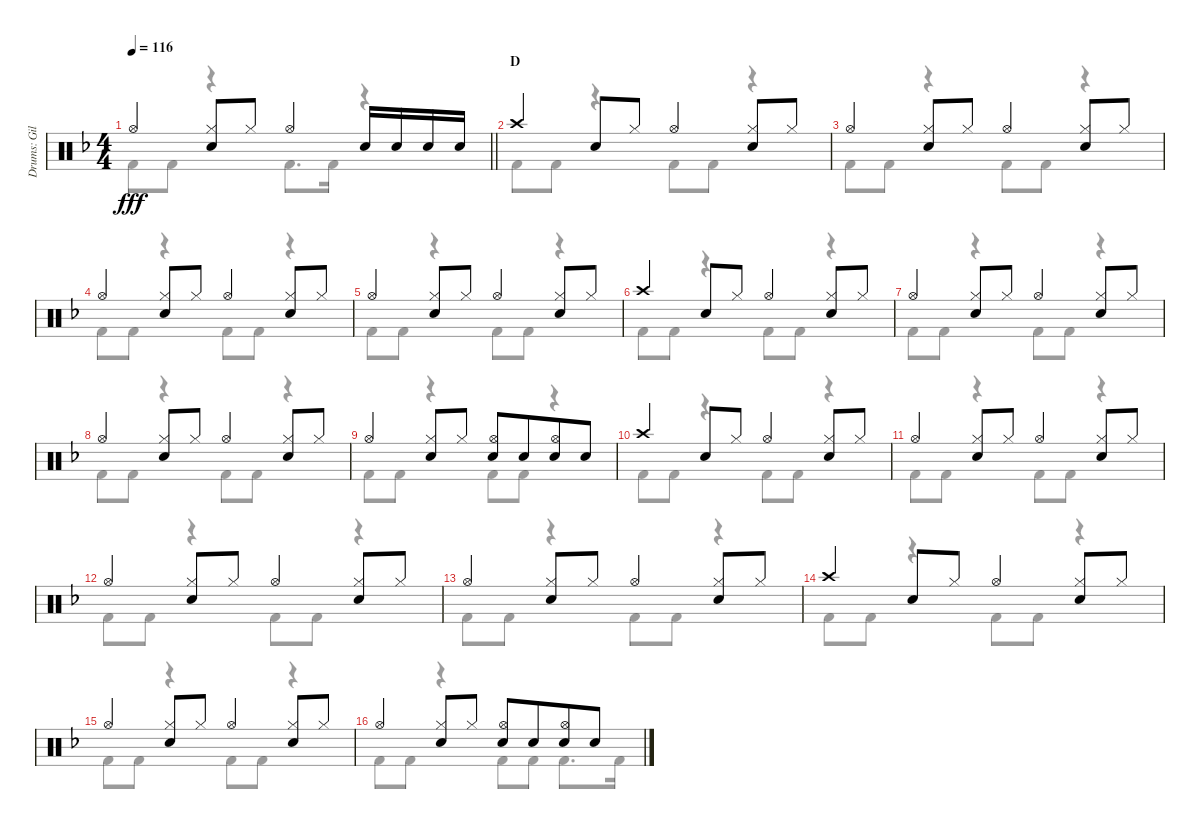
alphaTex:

\track ("Drums: Gil" "Drums: Gil") {instrument percussion}
\staff {score}
\articulation defaults
\voice
\ts (4 4)
\tempo 116
\clef neutral
\barLineRight lightlight
\ks f "Hi-Hat (open)".4{dy fff beam merge}
("Hi-Hat (closed)" "Snare (hit) 2").8 "Hi-Hat (closed)".8 "Hi-Hat (open)".4{beam merge} "Snare (hit) 2".16 "Snare (hit) 2".16{beam merge} "Snare (hit) 2".16{beam merge} "Snare (hit) 2".16 |
\section ("" "D")
"Crash high (hit)".4{beam merge} "Snare (hit) 2".8 "Hi-Hat (closed)".8 "Hi-Hat (open)".4{beam merge} ("Hi-Hat (closed)" "Snare (hit) 2").8 "Hi-Hat (closed)".8 |
"Hi-Hat (open)".4{beam merge} ("Hi-Hat (closed)" "Snare (hit) 2").8 "Hi-Hat (closed)".8 "Hi-Hat (open)".4{beam merge} ("Hi-Hat (closed)" "Snare (hit) 2").8 "Hi-Hat (closed)".8 |
"Hi-Hat (open)".4{beam merge} ("Hi-Hat (closed)" "Snare (hit) 2").8 "Hi-Hat (closed)".8 "Hi-Hat (open)".4{beam merge} ("Hi-Hat (closed)" "Snare (hit) 2").8 "Hi-Hat (closed)".8 |
"Hi-Hat (open)".4{beam merge} ("Hi-Hat (closed)" "Snare (hit) 2").8 "Hi-Hat (closed)".8 "Hi-Hat (open)".4{beam merge} ("Hi-Hat (closed)" "Snare (hit) 2").8 "Hi-Hat (closed)".8 |
"Crash high (hit)".4{beam merge} "Snare (hit) 2".8 "Hi-Hat (closed)".8 "Hi-Hat (open)".4{beam merge} ("Hi-Hat (closed)" "Snare (hit) 2").8 "Hi-Hat (closed)".8 |
"Hi-Hat (open)".4{beam merge} ("Hi-Hat (closed)" "Snare (hit) 2").8 "Hi-Hat (closed)".8 "Hi-Hat (open)".4{beam merge} ("Hi-Hat (closed)" "Snare (hit) 2").8 "Hi-Hat (closed)".8 |
"Hi-Hat (open)".4{beam merge} ("Hi-Hat (closed)" "Snare (hit) 2").8 "Hi-Hat (closed)".8 "Hi-Hat (open)".4{beam merge} ("Hi-Hat (closed)" "Snare (hit) 2").8 "Hi-Hat (closed)".8 |
"Hi-Hat (open)".4{beam merge} ("Hi-Hat (closed)" "Snare (hit) 2").8 "Hi-Hat (closed)".8 ("Hi-Hat (open)" "Snare (hit) 2").8{beam merge} "Snare (hit) 2".8{beam merge} ("Hi-Hat (open)" "Snare (hit) 2").8{beam merge} "Snare (hit) 2".8 |
"Crash high (hit)".4{beam merge} "Snare (hit) 2".8 "Hi-Hat (closed)".8 "Hi-Hat (open)".4{beam merge} ("Hi-Hat (closed)" "Snare (hit) 2").8 "Hi-Hat (closed)".8 |
"Hi-Hat (open)".4{beam merge} ("Hi-Hat (closed)" "Snare (hit) 2").8 "Hi-Hat (closed)".8 "Hi-Hat (open)".4{beam merge} ("Hi-Hat (closed)" "Snare (hit) 2").8 "Hi-Hat (closed)".8 |
"Hi-Hat (open)".4{beam merge} ("Hi-Hat (closed)" "Snare (hit) 2").8 "Hi-Hat (closed)".8 "Hi-Hat (open)".4{beam merge} ("Hi-Hat (closed)" "Snare (hit) 2").8 "Hi-Hat (closed)".8 |
"Hi-Hat (open)".4{beam merge} ("Hi-Hat (closed)" "Snare (hit) 2").8 "Hi-Hat (closed)".8 "Hi-Hat (open)".4{beam merge} ("Hi-Hat (closed)" "Snare (hit) 2").8 "Hi-Hat (closed)".8 |
"Crash high (hit)".4{beam merge} "Snare (hit) 2".8 "Hi-Hat (closed)".8 "Hi-Hat (open)".4{beam merge} ("Hi-Hat (closed)" "Snare (hit) 2").8 "Hi-Hat (closed)".8 |
"Hi-Hat (open)".4{beam merge} ("Hi-Hat (closed)" "Snare (hit) 2").8 "Hi-Hat (closed)".8 "Hi-Hat (open)".4{beam merge} ("Hi-Hat (closed)" "Snare (hit) 2").8 "Hi-Hat (closed)".8 |
"Hi-Hat (open)".4{beam merge} ("Hi-Hat (closed)" "Snare (hit) 2").8 "Hi-Hat (closed)".8 ("Hi-Hat (open)" "Snare (hit) 2").8{beam merge} "Snare (hit) 2".8{beam merge} ("Hi-Hat (open)" "Snare (hit) 2").8{beam merge} "Snare (hit) 2".8
\voice
\clef neutral
\ottava regular
\simile none
\barLineRight lightlight
\ks f "Kick (hit) 2".8{dy fff} "Kick (hit) 2".8
r.4 "Kick (hit) 2".8{d} "Kick (hit) 2".16 r.4 |
"Kick (hit) 2".8 "Kick (hit) 2".8 r.4 "Kick (hit) 2".8 "Kick (hit) 2".8 r.4 |
"Kick (hit) 2".8 "Kick (hit) 2".8 r.4 "Kick (hit) 2".8 "Kick (hit) 2".8 r.4 |
"Kick (hit) 2".8 "Kick (hit) 2".8 r.4 "Kick (hit) 2".8 "Kick (hit) 2".8 r.4 |
"Kick (hit) 2".8 "Kick (hit) 2".8 r.4 "Kick (hit) 2".8 "Kick (hit) 2".8 r.4 |
"Kick (hit) 2".8 "Kick (hit) 2".8 r.4 "Kick (hit) 2".8 "Kick (hit) 2".8 r.4 |
"Kick (hit) 2".8 "Kick (hit) 2".8 r.4 "Kick (hit) 2".8 "Kick (hit) 2".8 r.4 |
"Kick (hit) 2".8 "Kick (hit) 2".8 r.4 "Kick (hit) 2".8 "Kick (hit) 2".8 r.4 |
"Kick (hit) 2".8 "Kick (hit) 2".8 r.4 "Kick (hit) 2".8 "Kick (hit) 2".8 r.4 |
"Kick (hit) 2".8 "Kick (hit) 2".8 r.4 "Kick (hit) 2".8 "Kick (hit) 2".8 r.4 |
"Kick (hit) 2".8 "Kick (hit) 2".8 r.4 "Kick (hit) 2".8 "Kick (hit) 2".8 r.4 |
"Kick (hit) 2".8 "Kick (hit) 2".8 r.4 "Kick (hit) 2".8 "Kick (hit) 2".8 r.4 |
"Kick (hit) 2".8 "Kick (hit) 2".8 r.4 "Kick (hit) 2".8 "Kick (hit) 2".8 r.4 |
"Kick (hit) 2".8 "Kick (hit) 2".8 r.4 "Kick (hit) 2".8 "Kick (hit) 2".8 r.4 |
"Kick (hit) 2".8 "Kick (hit) 2".8 r.4 "Kick (hit) 2".8 "Kick (hit) 2".8 r.4 |
"Kick (hit) 2".8 "Kick (hit) 2".8 r.4 "Kick (hit) 2".8 "Kick (hit) 2".8 "Kick (hit) 2".8{d} "Kick (hit) 2".16
